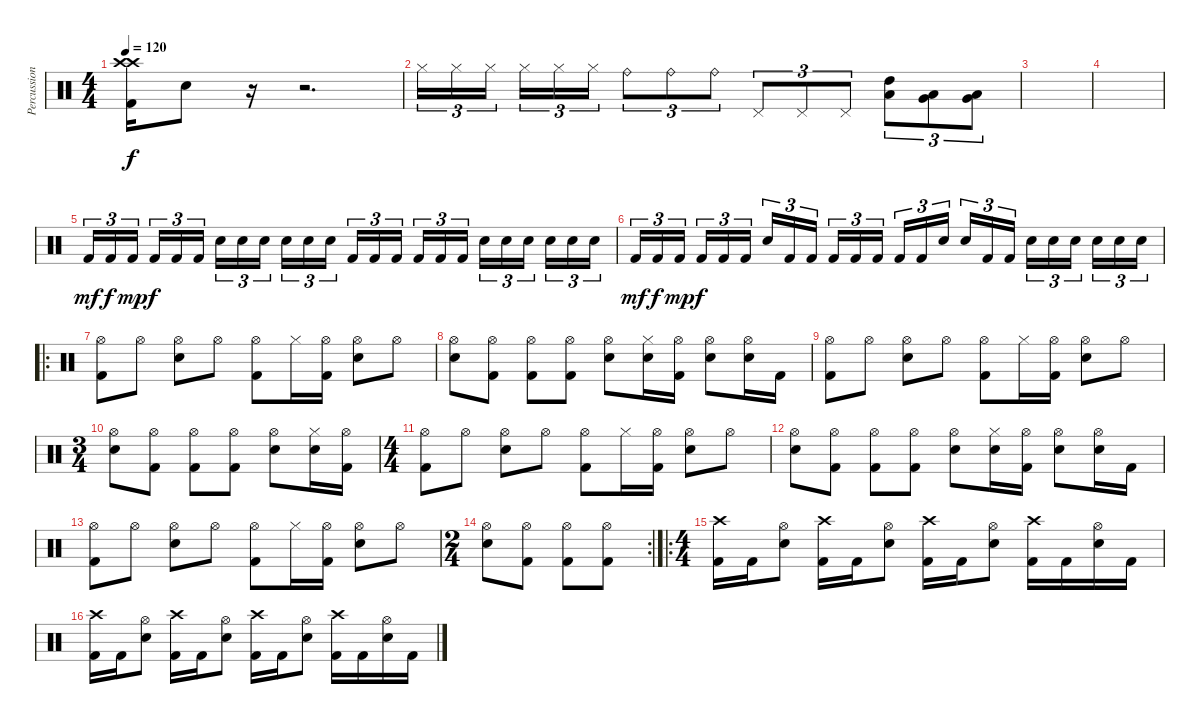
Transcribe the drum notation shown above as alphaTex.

\track ("Percussions" "Percussion") {instrument percussion}
\staff {score}
\articulation defaults
\ts (4 4)
\tempo 120
\clef neutral
\ks c
("Crash high (hit)" "Crash high (hit)" "Kick (hit) 2").16{dy f} "Electric Snare (hit)".8 r.16 r.2{d} |
"Hi-Hat (closed)".16{tu (3 2)} "Hi-Hat (closed)".16{tu (3 2)} "Hi-Hat (closed)".16{tu (3 2)} "Hi-Hat (closed)".16{tu (3 2)} "Hi-Hat (closed)".16{tu (3 2)} "Hi-Hat (closed)".16{tu (3 2)} "Ride (bell)".8{tu (3 2)} "Ride (bell)".8{tu (3 2)} "Ride (bell)".8{tu (3 2)} "Pedal Hi-Hat (hit)".8{tu (3 2)} "Pedal Hi-Hat (hit)".8{tu (3 2)} "Pedal Hi-Hat (hit)".8{tu (3 2)} ("High Tom (hit)" "Low Tom (hit)").8{tu (3 2)} ("Low Tom (hit)" "Very Low Tom (hit)").8{tu (3 2)} ("Very Low Tom (hit)" "Low Floor Tom (hit)").8{tu (3 2)} |
|
|
"Kick (hit) 2".16{tu (3 2) dy mf} "Kick (hit) 2".16{tu (3 2) dy f} "Kick (hit) 2".16{tu (3 2) dy mp} "Kick (hit) 2".16{tu (3 2) dy f} "Kick (hit) 2".16{tu (3 2)} "Kick (hit) 2".16{tu (3 2)} "Electric Snare (hit)".16{tu (3 2)} "Electric Snare (hit)".16{tu (3 2)} "Electric Snare (hit)".16{tu (3 2)} "Electric Snare (hit)".16{tu (3 2)} "Electric Snare (hit)".16{tu (3 2)} "Electric Snare (hit)".16{tu (3 2)} "Kick (hit) 2".16{tu (3 2)} "Kick (hit) 2".16{tu (3 2)} "Kick (hit) 2".16{tu (3 2)} "Kick (hit) 2".16{tu (3 2)} "Kick (hit) 2".16{tu (3 2)} "Kick (hit) 2".16{tu (3 2)} "Electric Snare (hit)".16{tu (3 2)} "Electric Snare (hit)".16{tu (3 2)} "Electric Snare (hit)".16{tu (3 2)} "Electric Snare (hit)".16{tu (3 2)} "Electric Snare (hit)".16{tu (3 2)} "Electric Snare (hit)".16{tu (3 2)} |
"Kick (hit) 2".16{tu (3 2) dy mf} "Kick (hit) 2".16{tu (3 2) dy f} "Kick (hit) 2".16{tu (3 2) dy mp} "Kick (hit) 2".16{tu (3 2) dy f} "Kick (hit) 2".16{tu (3 2)} "Kick (hit) 2".16{tu (3 2)} "Electric Snare (hit)".16{tu (3 2)} "Kick (hit) 2".16{tu (3 2)} "Kick (hit) 2".16{tu (3 2)} "Kick (hit) 2".16{tu (3 2)} "Kick (hit) 2".16{tu (3 2)} "Kick (hit) 2".16{tu (3 2)} "Kick (hit) 2".16{tu (3 2)} "Kick (hit) 2".16{tu (3 2)} "Electric Snare (hit)".16{tu (3 2)} "Electric Snare (hit)".16{tu (3 2)} "Kick (hit) 2".16{tu (3 2)} "Kick (hit) 2".16{tu (3 2)} "Electric Snare (hit)".16{tu (3 2)} "Electric Snare (hit)".16{tu (3 2)} "Electric Snare (hit)".16{tu (3 2)} "Electric Snare (hit)".16{tu (3 2)} "Electric Snare (hit)".16{tu (3 2)} "Electric Snare (hit)".16{tu (3 2)} |
\ro
("Hi-Hat (open)" "Kick (hit) 2").8 "Hi-Hat (open)".8 ("Hi-Hat (open)" "Electric Snare (hit)").8 "Hi-Hat (open)".8 ("Hi-Hat (open)" "Kick (hit) 2").8 "Hi-Hat (closed)".16 ("Hi-Hat (open)" "Kick (hit) 2").16 ("Hi-Hat (open)" "Electric Snare (hit)").8 "Hi-Hat (open)".8 |
("Hi-Hat (open)" "Electric Snare (hit)").8 ("Hi-Hat (open)" "Kick (hit) 2").8 ("Hi-Hat (open)" "Kick (hit) 2").8 ("Hi-Hat (open)" "Kick (hit) 2").8 ("Hi-Hat (open)" "Electric Snare (hit)").8 ("Hi-Hat (closed)" "Electric Snare (hit)").16 ("Hi-Hat (open)" "Kick (hit) 2").16 ("Hi-Hat (open)" "Electric Snare (hit)").8 ("Hi-Hat (open)" "Electric Snare (hit)").16 "Kick (hit) 2".16 |
("Hi-Hat (open)" "Kick (hit) 2").8 "Hi-Hat (open)".8 ("Hi-Hat (open)" "Electric Snare (hit)").8 "Hi-Hat (open)".8 ("Hi-Hat (open)" "Kick (hit) 2").8 "Hi-Hat (closed)".16 ("Hi-Hat (open)" "Kick (hit) 2").16 ("Hi-Hat (open)" "Electric Snare (hit)").8 "Hi-Hat (open)".8 |
\ts (3 4)
("Hi-Hat (open)" "Electric Snare (hit)").8 ("Hi-Hat (open)" "Kick (hit) 2").8 ("Hi-Hat (open)" "Kick (hit) 2").8 ("Hi-Hat (open)" "Kick (hit) 2").8 ("Hi-Hat (open)" "Electric Snare (hit)").8 ("Hi-Hat (closed)" "Electric Snare (hit)").16 ("Hi-Hat (open)" "Kick (hit) 2").16 |
\ts (4 4)
("Hi-Hat (open)" "Kick (hit) 2").8 "Hi-Hat (open)".8 ("Hi-Hat (open)" "Electric Snare (hit)").8 "Hi-Hat (open)".8 ("Hi-Hat (open)" "Kick (hit) 2").8 "Hi-Hat (closed)".16 ("Hi-Hat (open)" "Kick (hit) 2").16 ("Hi-Hat (open)" "Electric Snare (hit)").8 "Hi-Hat (open)".8 |
("Hi-Hat (open)" "Electric Snare (hit)").8 ("Hi-Hat (open)" "Kick (hit) 2").8 ("Hi-Hat (open)" "Kick (hit) 2").8 ("Hi-Hat (open)" "Kick (hit) 2").8 ("Hi-Hat (open)" "Electric Snare (hit)").8 ("Hi-Hat (closed)" "Electric Snare (hit)").16 ("Hi-Hat (open)" "Kick (hit) 2").16 ("Hi-Hat (open)" "Electric Snare (hit)").8 ("Hi-Hat (open)" "Electric Snare (hit)").16 "Kick (hit) 2".16 |
("Hi-Hat (open)" "Kick (hit) 2").8 "Hi-Hat (open)".8 ("Hi-Hat (open)" "Electric Snare (hit)").8 "Hi-Hat (open)".8 ("Hi-Hat (open)" "Kick (hit) 2").8 "Hi-Hat (closed)".16 ("Hi-Hat (open)" "Kick (hit) 2").16 ("Hi-Hat (open)" "Electric Snare (hit)").8 "Hi-Hat (open)".8 |
\rc 2
\ts (2 4)
("Hi-Hat (open)" "Electric Snare (hit)").8 ("Hi-Hat (open)" "Kick (hit) 2").8 ("Hi-Hat (open)" "Kick (hit) 2").8 ("Hi-Hat (open)" "Kick (hit) 2").8 |
\ro
\ts (4 4)
("Crash high (hit)" "Kick (hit) 2").16 "Kick (hit) 2".16 ("Hi-Hat (open)" "Electric Snare (hit)").8 ("Crash high (hit)" "Kick (hit) 2").16 "Kick (hit) 2".16 ("Hi-Hat (open)" "Electric Snare (hit)").8 ("Crash high (hit)" "Kick (hit) 2").16 "Kick (hit) 2".16 ("Hi-Hat (open)" "Electric Snare (hit)").8 ("Crash high (hit)" "Kick (hit) 2").16 "Kick (hit) 2".16 ("Hi-Hat (open)" "Electric Snare (hit)").16 "Kick (hit) 2".16 |
("Crash high (hit)" "Kick (hit) 2").16 "Kick (hit) 2".16 ("Hi-Hat (open)" "Electric Snare (hit)").8 ("Crash high (hit)" "Kick (hit) 2").16 "Kick (hit) 2".16 ("Hi-Hat (open)" "Electric Snare (hit)").8 ("Crash high (hit)" "Kick (hit) 2").16 "Kick (hit) 2".16 ("Hi-Hat (open)" "Electric Snare (hit)").8 ("Crash high (hit)" "Kick (hit) 2").16 "Kick (hit) 2".16 ("Hi-Hat (open)" "Electric Snare (hit)").16 "Kick (hit) 2".16
